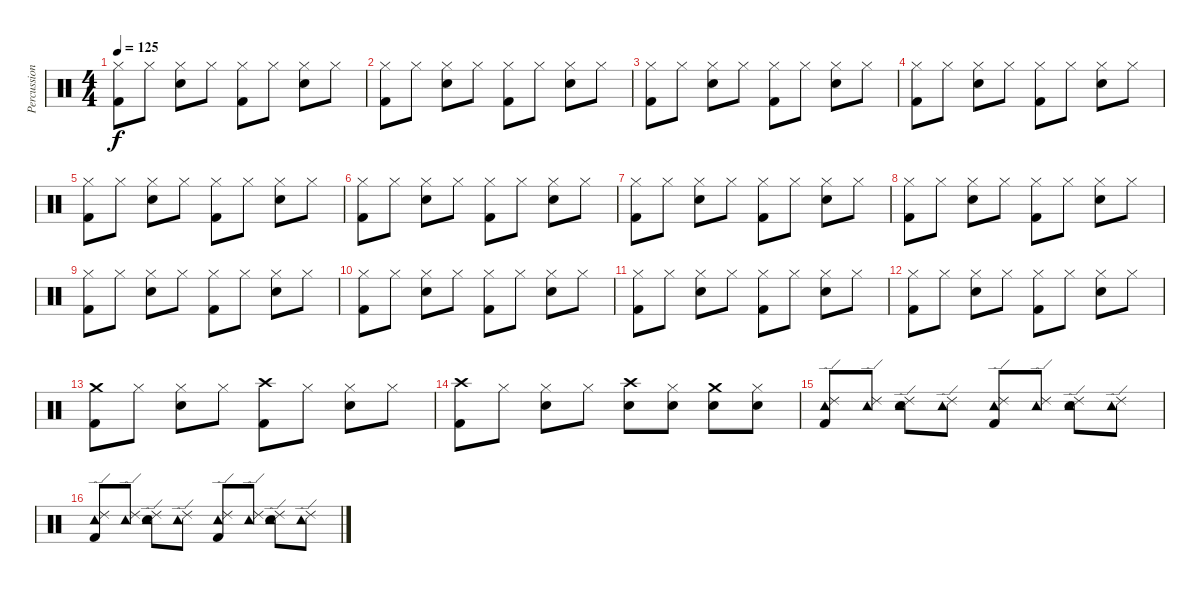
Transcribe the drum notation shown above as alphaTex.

\track ("Percussions" "Percussion") {instrument percussion}
\staff {score}
\articulation defaults
\ts (4 4)
\tempo 125
\clef neutral
\ks c
("Hi-Hat (closed)" "Kick (hit) 2").8{dy f} "Hi-Hat (closed)".8 ("Hi-Hat (closed)" "Snare (hit) 2").8 "Hi-Hat (closed)".8 ("Hi-Hat (closed)" "Kick (hit) 2").8 "Hi-Hat (closed)".8 ("Hi-Hat (closed)" "Snare (hit) 2").8 "Hi-Hat (closed)".8 |
("Hi-Hat (closed)" "Kick (hit) 2").8 "Hi-Hat (closed)".8 ("Hi-Hat (closed)" "Snare (hit) 2").8 "Hi-Hat (closed)".8 ("Hi-Hat (closed)" "Kick (hit) 2").8 "Hi-Hat (closed)".8 ("Hi-Hat (closed)" "Snare (hit) 2").8 "Hi-Hat (closed)".8 |
("Hi-Hat (closed)" "Kick (hit) 2").8 "Hi-Hat (closed)".8 ("Hi-Hat (closed)" "Snare (hit) 2").8 "Hi-Hat (closed)".8 ("Hi-Hat (closed)" "Kick (hit) 2").8 "Hi-Hat (closed)".8 ("Hi-Hat (closed)" "Snare (hit) 2").8 "Hi-Hat (closed)".8 |
("Hi-Hat (closed)" "Kick (hit) 2").8 "Hi-Hat (closed)".8 ("Hi-Hat (closed)" "Snare (hit) 2").8 "Hi-Hat (closed)".8 ("Hi-Hat (closed)" "Kick (hit) 2").8 "Hi-Hat (closed)".8 ("Hi-Hat (closed)" "Snare (hit) 2").8 "Hi-Hat (closed)".8 |
("Hi-Hat (closed)" "Kick (hit) 2").8 "Hi-Hat (closed)".8 ("Hi-Hat (closed)" "Snare (hit) 2").8 "Hi-Hat (closed)".8 ("Hi-Hat (closed)" "Kick (hit) 2").8 "Hi-Hat (closed)".8 ("Hi-Hat (closed)" "Snare (hit) 2").8 "Hi-Hat (closed)".8 |
("Hi-Hat (closed)" "Kick (hit) 2").8 "Hi-Hat (closed)".8 ("Hi-Hat (closed)" "Snare (hit) 2").8 "Hi-Hat (closed)".8 ("Hi-Hat (closed)" "Kick (hit) 2").8 "Hi-Hat (closed)".8 ("Hi-Hat (closed)" "Snare (hit) 2").8 "Hi-Hat (closed)".8 |
("Hi-Hat (closed)" "Kick (hit) 2").8 "Hi-Hat (closed)".8 ("Hi-Hat (closed)" "Snare (hit) 2").8 "Hi-Hat (closed)".8 ("Hi-Hat (closed)" "Kick (hit) 2").8 "Hi-Hat (closed)".8 ("Hi-Hat (closed)" "Snare (hit) 2").8 "Hi-Hat (closed)".8 |
("Hi-Hat (closed)" "Kick (hit) 2").8 "Hi-Hat (closed)".8 ("Hi-Hat (closed)" "Snare (hit) 2").8 "Hi-Hat (closed)".8 ("Hi-Hat (closed)" "Kick (hit) 2").8 "Hi-Hat (closed)".8 ("Hi-Hat (closed)" "Snare (hit) 2").8 "Hi-Hat (closed)".8 |
("Hi-Hat (closed)" "Kick (hit) 2").8 "Hi-Hat (closed)".8 ("Hi-Hat (closed)" "Snare (hit) 2").8 "Hi-Hat (closed)".8 ("Hi-Hat (closed)" "Kick (hit) 2").8 "Hi-Hat (closed)".8 ("Hi-Hat (closed)" "Snare (hit) 2").8 "Hi-Hat (closed)".8 |
("Hi-Hat (closed)" "Kick (hit) 2").8 "Hi-Hat (closed)".8 ("Hi-Hat (closed)" "Snare (hit) 2").8 "Hi-Hat (closed)".8 ("Hi-Hat (closed)" "Kick (hit) 2").8 "Hi-Hat (closed)".8 ("Hi-Hat (closed)" "Snare (hit) 2").8 "Hi-Hat (closed)".8 |
("Hi-Hat (closed)" "Kick (hit) 2").8 "Hi-Hat (closed)".8 ("Hi-Hat (closed)" "Snare (hit) 2").8 "Hi-Hat (closed)".8 ("Hi-Hat (closed)" "Kick (hit) 2").8 "Hi-Hat (closed)".8 ("Hi-Hat (closed)" "Snare (hit) 2").8 "Hi-Hat (closed)".8 |
("Hi-Hat (closed)" "Kick (hit) 2").8 "Hi-Hat (closed)".8 ("Hi-Hat (closed)" "Snare (hit) 2").8 "Hi-Hat (closed)".8 ("Hi-Hat (closed)" "Kick (hit) 2").8 "Hi-Hat (closed)".8 ("Hi-Hat (closed)" "Snare (hit) 2").8 "Hi-Hat (closed)".8 |
("Crash medium (hit)" "Kick (hit) 2").8 "Hi-Hat (closed)".8 ("Hi-Hat (closed)" "Snare (hit) 2").8 "Hi-Hat (closed)".8 ("Crash high (hit)" "Kick (hit) 2").8 "Hi-Hat (closed)".8 ("Hi-Hat (closed)" "Snare (hit) 2").8 "Hi-Hat (closed)".8 |
("Crash high (hit)" "Kick (hit) 2").8 "Hi-Hat (closed)".8 ("Hi-Hat (closed)" "Snare (hit) 2").8 "Hi-Hat (closed)".8 ("Crash high (hit)" "Snare (hit) 2").8 ("Hi-Hat (closed)" "Snare (hit) 2").8 ("Crash medium (hit)" "Snare (hit) 2").8 ("Hi-Hat (closed)" "Snare (hit) 2").8 |
("Ride (edge) 2" "Kick (hit) 2" "Tambourine (hit)").8 ("Ride (edge) 2" "Tambourine (hit)").8 ("Ride (edge) 2" "Snare (hit) 2" "Tambourine (hit)").8 ("Ride (edge) 2" "Tambourine (hit)").8 ("Ride (edge) 2" "Kick (hit) 2" "Tambourine (hit)").8 ("Ride (edge) 2" "Tambourine (hit)").8 ("Ride (edge) 2" "Snare (hit) 2" "Tambourine (hit)").8 ("Ride (edge) 2" "Tambourine (hit)").8 |
("Ride (edge) 2" "Kick (hit) 2" "Tambourine (hit)").8 ("Ride (edge) 2" "Tambourine (hit)").8 ("Ride (edge) 2" "Snare (hit) 2" "Tambourine (hit)").8 ("Ride (edge) 2" "Tambourine (hit)").8 ("Ride (edge) 2" "Kick (hit) 2" "Tambourine (hit)").8 ("Ride (edge) 2" "Tambourine (hit)").8 ("Ride (edge) 2" "Snare (hit) 2" "Tambourine (hit)").8 ("Ride (edge) 2" "Tambourine (hit)").8
